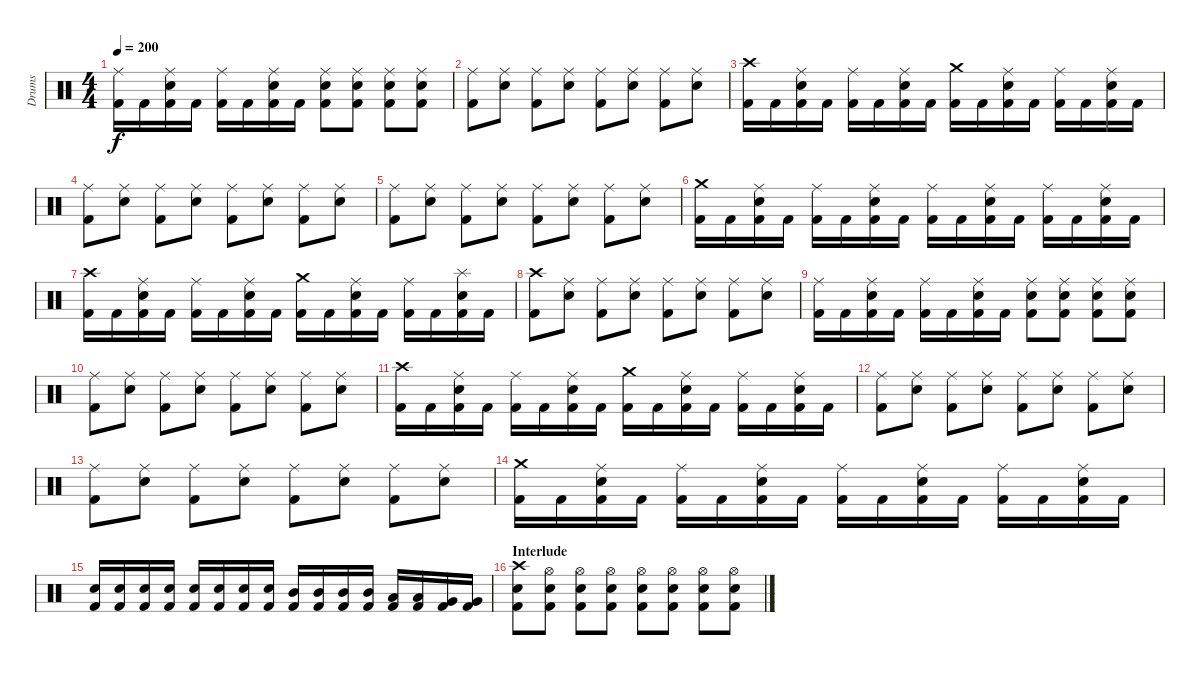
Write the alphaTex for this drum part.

\track ("Drums" "Drums") {instrument percussion}
\staff {score}
\articulation defaults
\ts (4 4)
\tempo 200
\clef neutral
\ks c
("Ride (middle)" "Kick (hit) 2").16{dy f} "Kick (hit) 2".16 ("Ride (middle)" "Snare (hit) 2" "Kick (hit) 2").16 "Kick (hit) 2".16 ("Ride (middle)" "Kick (hit) 2").16 "Kick (hit) 2".16 ("Ride (middle)" "Snare (hit) 2" "Kick (hit) 2").16 "Kick (hit) 2".16 ("Ride (middle)" "Snare (hit) 2" "Kick (hit) 2").8 ("Ride (middle)" "Snare (hit) 2" "Kick (hit) 2").8 ("Ride (middle)" "Snare (hit) 2" "Kick (hit) 2").8 ("Ride (middle)" "Snare (hit) 2" "Kick (hit) 2").8 |
("Ride (middle)" "Kick (hit) 2").8 ("Ride (middle)" "Snare (hit) 2").8 ("Ride (middle)" "Kick (hit) 2").8 ("Ride (middle)" "Snare (hit) 2").8 ("Ride (middle)" "Kick (hit) 2").8 ("Ride (middle)" "Snare (hit) 2").8 ("Ride (middle)" "Kick (hit) 2").8 ("Ride (middle)" "Snare (hit) 2").8 |
("Crash high (hit)" "Kick (hit) 2").16 "Kick (hit) 2".16 ("Ride (middle)" "Snare (hit) 2" "Kick (hit) 2").16 "Kick (hit) 2".16 ("Ride (middle)" "Kick (hit) 2").16 "Kick (hit) 2".16 ("Ride (middle)" "Snare (hit) 2" "Kick (hit) 2").16 "Kick (hit) 2".16 ("Crash medium (hit)" "Kick (hit) 2").16 "Kick (hit) 2".16 ("Ride (middle)" "Snare (hit) 2" "Kick (hit) 2").16 "Kick (hit) 2".16 ("Ride (middle)" "Kick (hit) 2").16 "Kick (hit) 2".16 ("Ride (middle)" "Snare (hit) 2" "Kick (hit) 2").16 "Kick (hit) 2".16 |
("Ride (middle)" "Kick (hit) 2").8 ("Ride (middle)" "Snare (hit) 2").8 ("Ride (middle)" "Kick (hit) 2").8 ("Ride (middle)" "Snare (hit) 2").8 ("Ride (middle)" "Kick (hit) 2").8 ("Ride (middle)" "Snare (hit) 2").8 ("Ride (middle)" "Kick (hit) 2").8 ("Ride (middle)" "Snare (hit) 2").8 |
("Ride (middle)" "Kick (hit) 2").8 ("Ride (middle)" "Snare (hit) 2").8 ("Ride (middle)" "Kick (hit) 2").8 ("Ride (middle)" "Snare (hit) 2").8 ("Ride (middle)" "Kick (hit) 2").8 ("Ride (middle)" "Snare (hit) 2").8 ("Ride (middle)" "Kick (hit) 2").8 ("Ride (middle)" "Snare (hit) 2").8 |
("Crash medium (hit)" "Kick (hit) 2").16 "Kick (hit) 2".16 ("Ride (middle)" "Snare (hit) 2" "Kick (hit) 2").16 "Kick (hit) 2".16 ("Ride (middle)" "Kick (hit) 2").16 "Kick (hit) 2".16 ("Ride (middle)" "Snare (hit) 2" "Kick (hit) 2").16 "Kick (hit) 2".16 ("Ride (middle)" "Kick (hit) 2").16 "Kick (hit) 2".16 ("Ride (middle)" "Snare (hit) 2" "Kick (hit) 2").16 "Kick (hit) 2".16 ("Ride (middle)" "Kick (hit) 2").16 "Kick (hit) 2".16 ("Ride (middle)" "Snare (hit) 2" "Kick (hit) 2").16 "Kick (hit) 2".16 |
("Crash high (hit)" "Kick (hit) 2").16 "Kick (hit) 2".16 ("Ride (middle)" "Snare (hit) 2" "Kick (hit) 2").16 "Kick (hit) 2".16 ("Ride (middle)" "Kick (hit) 2").16 "Kick (hit) 2".16 ("Ride (middle)" "Snare (hit) 2" "Kick (hit) 2").16 "Kick (hit) 2".16 ("Crash medium (hit)" "Kick (hit) 2").16 "Kick (hit) 2".16 ("Ride (middle)" "Snare (hit) 2" "Kick (hit) 2").16 "Kick (hit) 2".16 ("Ride (middle)" "Kick (hit) 2").16 "Kick (hit) 2".16 ("Splash (hit)" "Snare (hit) 2" "Kick (hit) 2").16 "Kick (hit) 2".16 |
("Crash high (hit)" "Kick (hit) 2").8 ("Ride (middle)" "Snare (hit) 2").8 ("Ride (middle)" "Kick (hit) 2").8 ("Ride (middle)" "Snare (hit) 2").8 ("Ride (middle)" "Kick (hit) 2").8 ("Ride (middle)" "Snare (hit) 2").8 ("Ride (middle)" "Kick (hit) 2").8 ("Ride (middle)" "Snare (hit) 2").8 |
("Ride (middle)" "Kick (hit) 2").16 "Kick (hit) 2".16 ("Ride (middle)" "Snare (hit) 2" "Kick (hit) 2").16 "Kick (hit) 2".16 ("Ride (middle)" "Kick (hit) 2").16 "Kick (hit) 2".16 ("Ride (middle)" "Snare (hit) 2" "Kick (hit) 2").16 "Kick (hit) 2".16 ("Ride (middle)" "Snare (hit) 2" "Kick (hit) 2").8 ("Ride (middle)" "Snare (hit) 2" "Kick (hit) 2").8 ("Ride (middle)" "Snare (hit) 2" "Kick (hit) 2").8 ("Ride (middle)" "Snare (hit) 2" "Kick (hit) 2").8 |
("Ride (middle)" "Kick (hit) 2").8 ("Ride (middle)" "Snare (hit) 2").8 ("Ride (middle)" "Kick (hit) 2").8 ("Ride (middle)" "Snare (hit) 2").8 ("Ride (middle)" "Kick (hit) 2").8 ("Ride (middle)" "Snare (hit) 2").8 ("Ride (middle)" "Kick (hit) 2").8 ("Ride (middle)" "Snare (hit) 2").8 |
("Crash high (hit)" "Kick (hit) 2").16 "Kick (hit) 2".16 ("Ride (middle)" "Snare (hit) 2" "Kick (hit) 2").16 "Kick (hit) 2".16 ("Ride (middle)" "Kick (hit) 2").16 "Kick (hit) 2".16 ("Ride (middle)" "Snare (hit) 2" "Kick (hit) 2").16 "Kick (hit) 2".16 ("Crash medium (hit)" "Kick (hit) 2").16 "Kick (hit) 2".16 ("Ride (middle)" "Snare (hit) 2" "Kick (hit) 2").16 "Kick (hit) 2".16 ("Ride (middle)" "Kick (hit) 2").16 "Kick (hit) 2".16 ("Ride (middle)" "Snare (hit) 2" "Kick (hit) 2").16 "Kick (hit) 2".16 |
("Ride (middle)" "Kick (hit) 2").8 ("Ride (middle)" "Snare (hit) 2").8 ("Ride (middle)" "Kick (hit) 2").8 ("Ride (middle)" "Snare (hit) 2").8 ("Ride (middle)" "Kick (hit) 2").8 ("Ride (middle)" "Snare (hit) 2").8 ("Ride (middle)" "Kick (hit) 2").8 ("Ride (middle)" "Snare (hit) 2").8 |
("Ride (middle)" "Kick (hit) 2").8 ("Ride (middle)" "Snare (hit) 2").8 ("Ride (middle)" "Kick (hit) 2").8 ("Ride (middle)" "Snare (hit) 2").8 ("Ride (middle)" "Kick (hit) 2").8 ("Ride (middle)" "Snare (hit) 2").8 ("Ride (middle)" "Kick (hit) 2").8 ("Ride (middle)" "Snare (hit) 2").8 |
("Crash medium (hit)" "Kick (hit) 2").16 "Kick (hit) 2".16 ("Ride (middle)" "Snare (hit) 2" "Kick (hit) 2").16 "Kick (hit) 2".16 ("Ride (middle)" "Kick (hit) 2").16 "Kick (hit) 2".16 ("Ride (middle)" "Snare (hit) 2" "Kick (hit) 2").16 "Kick (hit) 2".16 ("Ride (middle)" "Kick (hit) 2").16 "Kick (hit) 2".16 ("Ride (middle)" "Snare (hit) 2" "Kick (hit) 2").16 "Kick (hit) 2".16 ("Ride (middle)" "Kick (hit) 2").16 "Kick (hit) 2".16 ("Ride (middle)" "Snare (hit) 2" "Kick (hit) 2").16 "Kick (hit) 2".16 |
("Snare (hit) 2" "Kick (hit) 2").16 ("Snare (hit) 2" "Kick (hit) 2").16 ("Snare (hit) 2" "Kick (hit) 2").16 ("Snare (hit) 2" "Kick (hit) 2").16 ("Snare (hit) 2" "Kick (hit) 2").16 ("Snare (hit) 2" "Kick (hit) 2").16 ("Snare (hit) 2" "Kick (hit) 2").16 ("Snare (hit) 2" "Kick (hit) 2").16 ("Mid Tom (hit)" "Kick (hit) 2").16 ("Mid Tom (hit)" "Kick (hit) 2").16 ("Mid Tom (hit)" "Kick (hit) 2").16 ("Mid Tom (hit)" "Kick (hit) 2").16 ("Low Tom (hit)" "Kick (hit) 2").16 ("Low Tom (hit)" "Kick (hit) 2").16 ("Very Low Tom (hit)" "Kick (hit) 2").16 ("Very Low Tom (hit)" "Kick (hit) 2").16 |
\section ("" "Interlude")
("Crash high (hit)" "Snare (hit) 2" "Kick (hit) 2").8 ("Hi-Hat (open)" "Snare (hit) 2" "Kick (hit) 2").8 ("Hi-Hat (open)" "Snare (hit) 2" "Kick (hit) 2").8 ("Hi-Hat (open)" "Snare (hit) 2" "Kick (hit) 2").8 ("Hi-Hat (open)" "Snare (hit) 2" "Kick (hit) 2").8 ("Hi-Hat (open)" "Snare (hit) 2" "Kick (hit) 2").8 ("Hi-Hat (open)" "Snare (hit) 2" "Kick (hit) 2").8 ("Hi-Hat (open)" "Snare (hit) 2" "Kick (hit) 2").8
